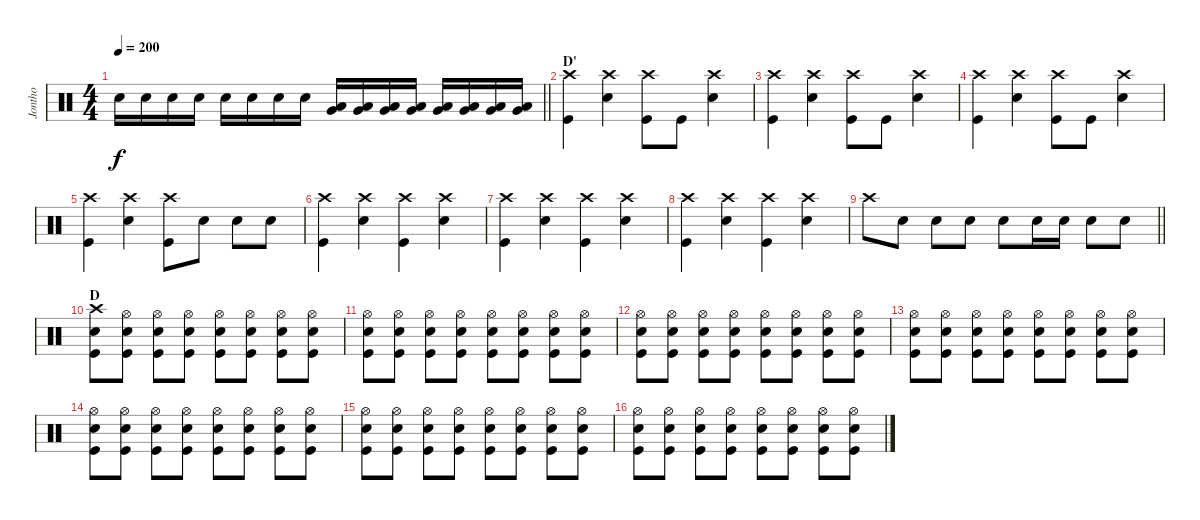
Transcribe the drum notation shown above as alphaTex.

\track ("Jontho" "Jontho") {instrument percussion}
\staff {score}
\articulation defaults
\ts (4 4)
\tempo 200
\clef neutral
\barLineRight lightlight
\ks c "Snare (hit) 2".16{dy f} "Snare (hit) 2".16 "Snare (hit) 2".16 "Snare (hit) 2".16 "Snare (hit) 2".16 "Snare (hit) 2".16 "Snare (hit) 2".16 "Snare (hit) 2".16
("Low Tom (hit)" "Very Low Tom (hit)").16 ("Low Tom (hit)" "Very Low Tom (hit)").16 ("Low Tom (hit)" "Very Low Tom (hit)").16 ("Low Tom (hit)" "Very Low Tom (hit)").16 ("Very Low Tom (hit)" "Low Floor Tom (hit)").16 ("Very Low Tom (hit)" "Low Floor Tom (hit)").16 ("Very Low Tom (hit)" "Low Floor Tom (hit)").16 ("Very Low Tom (hit)" "Low Floor Tom (hit)").16 |
\section ("" "D'")
("Crash high (hit)" "Kick (hit)").4 ("Crash high (hit)" "Snare (hit) 2").4 ("Crash high (hit)" "Kick (hit)").8 "Kick (hit)".8 ("Crash high (hit)" "Snare (hit) 2").4 |
("Crash high (hit)" "Kick (hit)").4 ("Crash high (hit)" "Snare (hit) 2").4 ("Crash high (hit)" "Kick (hit)").8 "Kick (hit)".8 ("Crash high (hit)" "Snare (hit) 2").4 |
("Crash high (hit)" "Kick (hit)").4 ("Crash high (hit)" "Snare (hit) 2").4 ("Crash high (hit)" "Kick (hit)").8 "Kick (hit)".8 ("Crash high (hit)" "Snare (hit) 2").4 |
("Crash high (hit)" "Kick (hit)").4 ("Crash high (hit)" "Snare (hit) 2").4 ("Crash high (hit)" "Kick (hit)").8 "Snare (hit) 2".8 "Snare (hit) 2".8 "Snare (hit) 2".8 |
("Crash high (hit)" "Kick (hit)").4 ("Crash high (hit)" "Snare (hit) 2").4 ("Crash high (hit)" "Kick (hit)").4 ("Crash high (hit)" "Snare (hit) 2").4 |
("Crash high (hit)" "Kick (hit)").4 ("Crash high (hit)" "Snare (hit) 2").4 ("Crash high (hit)" "Kick (hit)").4 ("Crash high (hit)" "Snare (hit) 2").4 |
("Crash high (hit)" "Kick (hit)").4 ("Crash high (hit)" "Snare (hit) 2").4 ("Crash high (hit)" "Kick (hit)").4 ("Crash high (hit)" "Snare (hit) 2").4 |
\barLineRight lightlight "Crash high (hit)".8 "Snare (hit) 2".8 "Snare (hit) 2".8 "Snare (hit) 2".8 "Snare (hit) 2".8 "Snare (hit) 2".16 "Snare (hit) 2".16 "Snare (hit) 2".8 "Snare (hit) 2".8
|
\section ("" "D")
("Crash high (hit)" "Snare (hit) 2" "Kick (hit)").8 ("Hi-Hat (open)" "Snare (hit) 2" "Kick (hit)").8 ("Hi-Hat (open)" "Snare (hit) 2" "Kick (hit)").8 ("Hi-Hat (open)" "Snare (hit) 2" "Kick (hit)").8 ("Hi-Hat (open)" "Snare (hit) 2" "Kick (hit)").8 ("Hi-Hat (open)" "Snare (hit) 2" "Kick (hit)").8 ("Hi-Hat (open)" "Snare (hit) 2" "Kick (hit)").8 ("Hi-Hat (open)" "Snare (hit) 2" "Kick (hit)").8 |
("Hi-Hat (open)" "Snare (hit) 2" "Kick (hit)").8 ("Hi-Hat (open)" "Snare (hit) 2" "Kick (hit)").8 ("Hi-Hat (open)" "Snare (hit) 2" "Kick (hit)").8 ("Hi-Hat (open)" "Snare (hit) 2" "Kick (hit)").8 ("Hi-Hat (open)" "Snare (hit) 2" "Kick (hit)").8 ("Hi-Hat (open)" "Snare (hit) 2" "Kick (hit)").8 ("Hi-Hat (open)" "Snare (hit) 2" "Kick (hit)").8 ("Hi-Hat (open)" "Snare (hit) 2" "Kick (hit)").8 |
("Hi-Hat (open)" "Snare (hit) 2" "Kick (hit)").8 ("Hi-Hat (open)" "Snare (hit) 2" "Kick (hit)").8 ("Hi-Hat (open)" "Snare (hit) 2" "Kick (hit)").8 ("Hi-Hat (open)" "Snare (hit) 2" "Kick (hit)").8 ("Hi-Hat (open)" "Snare (hit) 2" "Kick (hit)").8 ("Hi-Hat (open)" "Snare (hit) 2" "Kick (hit)").8 ("Hi-Hat (open)" "Snare (hit) 2" "Kick (hit)").8 ("Hi-Hat (open)" "Snare (hit) 2" "Kick (hit)").8 |
("Hi-Hat (open)" "Snare (hit) 2" "Kick (hit)").8 ("Hi-Hat (open)" "Snare (hit) 2" "Kick (hit)").8 ("Hi-Hat (open)" "Snare (hit) 2" "Kick (hit)").8 ("Hi-Hat (open)" "Snare (hit) 2" "Kick (hit)").8 ("Hi-Hat (open)" "Snare (hit) 2" "Kick (hit)").8 ("Hi-Hat (open)" "Snare (hit) 2" "Kick (hit)").8 ("Hi-Hat (open)" "Snare (hit) 2" "Kick (hit)").8 ("Hi-Hat (open)" "Snare (hit) 2" "Kick (hit)").8 |
("Hi-Hat (open)" "Snare (hit) 2" "Kick (hit)").8 ("Hi-Hat (open)" "Snare (hit) 2" "Kick (hit)").8 ("Hi-Hat (open)" "Snare (hit) 2" "Kick (hit)").8 ("Hi-Hat (open)" "Snare (hit) 2" "Kick (hit)").8 ("Hi-Hat (open)" "Snare (hit) 2" "Kick (hit)").8 ("Hi-Hat (open)" "Snare (hit) 2" "Kick (hit)").8 ("Hi-Hat (open)" "Snare (hit) 2" "Kick (hit)").8 ("Hi-Hat (open)" "Snare (hit) 2" "Kick (hit)").8 |
("Hi-Hat (open)" "Snare (hit) 2" "Kick (hit)").8 ("Hi-Hat (open)" "Snare (hit) 2" "Kick (hit)").8 ("Hi-Hat (open)" "Snare (hit) 2" "Kick (hit)").8 ("Hi-Hat (open)" "Snare (hit) 2" "Kick (hit)").8 ("Hi-Hat (open)" "Snare (hit) 2" "Kick (hit)").8 ("Hi-Hat (open)" "Snare (hit) 2" "Kick (hit)").8 ("Hi-Hat (open)" "Snare (hit) 2" "Kick (hit)").8 ("Hi-Hat (open)" "Snare (hit) 2" "Kick (hit)").8 |
("Hi-Hat (open)" "Snare (hit) 2" "Kick (hit)").8 ("Hi-Hat (open)" "Snare (hit) 2" "Kick (hit)").8 ("Hi-Hat (open)" "Snare (hit) 2" "Kick (hit)").8 ("Hi-Hat (open)" "Snare (hit) 2" "Kick (hit)").8 ("Hi-Hat (open)" "Snare (hit) 2" "Kick (hit)").8 ("Hi-Hat (open)" "Snare (hit) 2" "Kick (hit)").8 ("Hi-Hat (open)" "Snare (hit) 2" "Kick (hit)").8 ("Hi-Hat (open)" "Snare (hit) 2" "Kick (hit)").8
